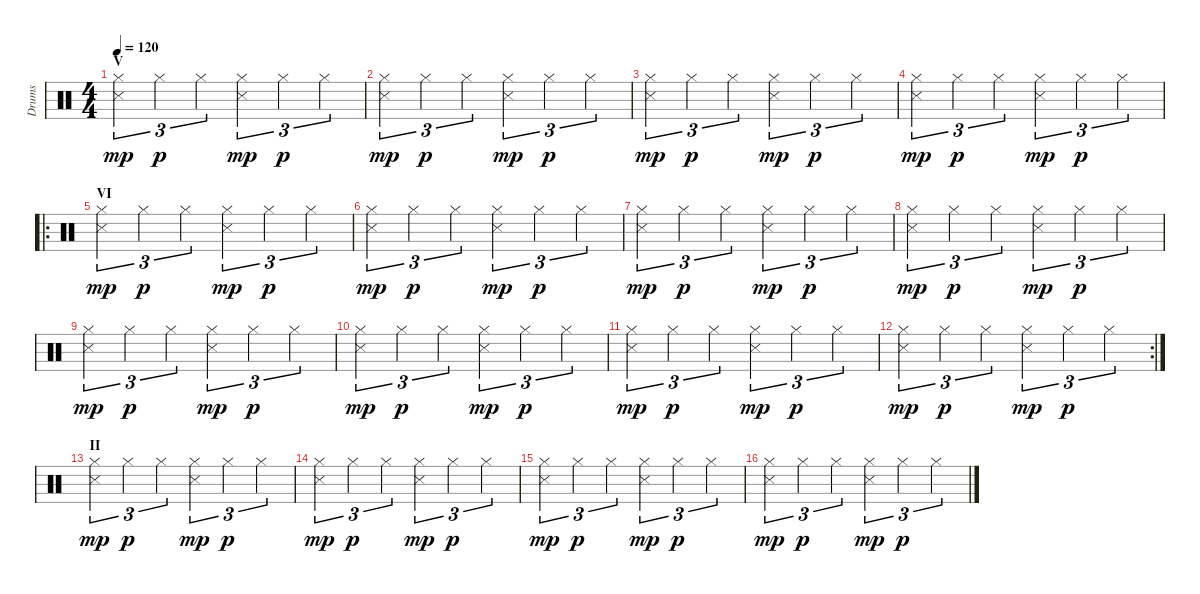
\track ("Drums" "Drums") {instrument percussion}
\staff {score}
\articulation defaults
\ts (4 4)
\section ("" "V")
\tempo 120
\clef neutral
\ks c
("Hi-Hat (closed)" "Snare (side stick) 3").4{tu (3 2) dy mp} "Hi-Hat (closed)".4{tu (3 2) dy p} "Hi-Hat (closed)".4{tu (3 2)} ("Hi-Hat (closed)" "Snare (side stick) 3").4{tu (3 2) dy mp} "Hi-Hat (closed)".4{tu (3 2) dy p} "Hi-Hat (closed)".4{tu (3 2)} |
("Hi-Hat (closed)" "Snare (side stick) 3").4{tu (3 2) dy mp} "Hi-Hat (closed)".4{tu (3 2) dy p} "Hi-Hat (closed)".4{tu (3 2)} ("Hi-Hat (closed)" "Snare (side stick) 3").4{tu (3 2) dy mp} "Hi-Hat (closed)".4{tu (3 2) dy p} "Hi-Hat (closed)".4{tu (3 2)} |
("Hi-Hat (closed)" "Snare (side stick) 3").4{tu (3 2) dy mp} "Hi-Hat (closed)".4{tu (3 2) dy p} "Hi-Hat (closed)".4{tu (3 2)} ("Hi-Hat (closed)" "Snare (side stick) 3").4{tu (3 2) dy mp} "Hi-Hat (closed)".4{tu (3 2) dy p} "Hi-Hat (closed)".4{tu (3 2)} |
("Hi-Hat (closed)" "Snare (side stick) 3").4{tu (3 2) dy mp} "Hi-Hat (closed)".4{tu (3 2) dy p} "Hi-Hat (closed)".4{tu (3 2)} ("Hi-Hat (closed)" "Snare (side stick) 3").4{tu (3 2) dy mp} "Hi-Hat (closed)".4{tu (3 2) dy p} "Hi-Hat (closed)".4{tu (3 2)} |
\ro
\section ("" "VI")
("Hi-Hat (closed)" "Snare (side stick) 3").4{tu (3 2) dy mp} "Hi-Hat (closed)".4{tu (3 2) dy p} "Hi-Hat (closed)".4{tu (3 2)} ("Hi-Hat (closed)" "Snare (side stick) 3").4{tu (3 2) dy mp} "Hi-Hat (closed)".4{tu (3 2) dy p} "Hi-Hat (closed)".4{tu (3 2)} |
("Hi-Hat (closed)" "Snare (side stick) 3").4{tu (3 2) dy mp} "Hi-Hat (closed)".4{tu (3 2) dy p} "Hi-Hat (closed)".4{tu (3 2)} ("Hi-Hat (closed)" "Snare (side stick) 3").4{tu (3 2) dy mp} "Hi-Hat (closed)".4{tu (3 2) dy p} "Hi-Hat (closed)".4{tu (3 2)} |
("Hi-Hat (closed)" "Snare (side stick) 3").4{tu (3 2) dy mp} "Hi-Hat (closed)".4{tu (3 2) dy p} "Hi-Hat (closed)".4{tu (3 2)} ("Hi-Hat (closed)" "Snare (side stick) 3").4{tu (3 2) dy mp} "Hi-Hat (closed)".4{tu (3 2) dy p} "Hi-Hat (closed)".4{tu (3 2)} |
("Hi-Hat (closed)" "Snare (side stick) 3").4{tu (3 2) dy mp} "Hi-Hat (closed)".4{tu (3 2) dy p} "Hi-Hat (closed)".4{tu (3 2)} ("Hi-Hat (closed)" "Snare (side stick) 3").4{tu (3 2) dy mp} "Hi-Hat (closed)".4{tu (3 2) dy p} "Hi-Hat (closed)".4{tu (3 2)} |
("Hi-Hat (closed)" "Snare (side stick) 3").4{tu (3 2) dy mp} "Hi-Hat (closed)".4{tu (3 2) dy p} "Hi-Hat (closed)".4{tu (3 2)} ("Hi-Hat (closed)" "Snare (side stick) 3").4{tu (3 2) dy mp} "Hi-Hat (closed)".4{tu (3 2) dy p} "Hi-Hat (closed)".4{tu (3 2)} |
("Hi-Hat (closed)" "Snare (side stick) 3").4{tu (3 2) dy mp} "Hi-Hat (closed)".4{tu (3 2) dy p} "Hi-Hat (closed)".4{tu (3 2)} ("Hi-Hat (closed)" "Snare (side stick) 3").4{tu (3 2) dy mp} "Hi-Hat (closed)".4{tu (3 2) dy p} "Hi-Hat (closed)".4{tu (3 2)} |
("Hi-Hat (closed)" "Snare (side stick) 3").4{tu (3 2) dy mp} "Hi-Hat (closed)".4{tu (3 2) dy p} "Hi-Hat (closed)".4{tu (3 2)} ("Hi-Hat (closed)" "Snare (side stick) 3").4{tu (3 2) dy mp} "Hi-Hat (closed)".4{tu (3 2) dy p} "Hi-Hat (closed)".4{tu (3 2)} |
\rc 2
("Hi-Hat (closed)" "Snare (side stick) 3").4{tu (3 2) dy mp} "Hi-Hat (closed)".4{tu (3 2) dy p} "Hi-Hat (closed)".4{tu (3 2)} ("Hi-Hat (closed)" "Snare (side stick) 3").4{tu (3 2) dy mp} "Hi-Hat (closed)".4{tu (3 2) dy p} "Hi-Hat (closed)".4{tu (3 2)} |
\section ("" "II")
("Hi-Hat (closed)" "Snare (side stick) 3").4{tu (3 2) dy mp} "Hi-Hat (closed)".4{tu (3 2) dy p} "Hi-Hat (closed)".4{tu (3 2)} ("Hi-Hat (closed)" "Snare (side stick) 3").4{tu (3 2) dy mp} "Hi-Hat (closed)".4{tu (3 2) dy p} "Hi-Hat (closed)".4{tu (3 2)} |
("Hi-Hat (closed)" "Snare (side stick) 3").4{tu (3 2) dy mp} "Hi-Hat (closed)".4{tu (3 2) dy p} "Hi-Hat (closed)".4{tu (3 2)} ("Hi-Hat (closed)" "Snare (side stick) 3").4{tu (3 2) dy mp} "Hi-Hat (closed)".4{tu (3 2) dy p} "Hi-Hat (closed)".4{tu (3 2)} |
("Hi-Hat (closed)" "Snare (side stick) 3").4{tu (3 2) dy mp} "Hi-Hat (closed)".4{tu (3 2) dy p} "Hi-Hat (closed)".4{tu (3 2)} ("Hi-Hat (closed)" "Snare (side stick) 3").4{tu (3 2) dy mp} "Hi-Hat (closed)".4{tu (3 2) dy p} "Hi-Hat (closed)".4{tu (3 2)} |
("Hi-Hat (closed)" "Snare (side stick) 3").4{tu (3 2) dy mp} "Hi-Hat (closed)".4{tu (3 2) dy p} "Hi-Hat (closed)".4{tu (3 2)} ("Hi-Hat (closed)" "Snare (side stick) 3").4{tu (3 2) dy mp} "Hi-Hat (closed)".4{tu (3 2) dy p} "Hi-Hat (closed)".4{tu (3 2)}
